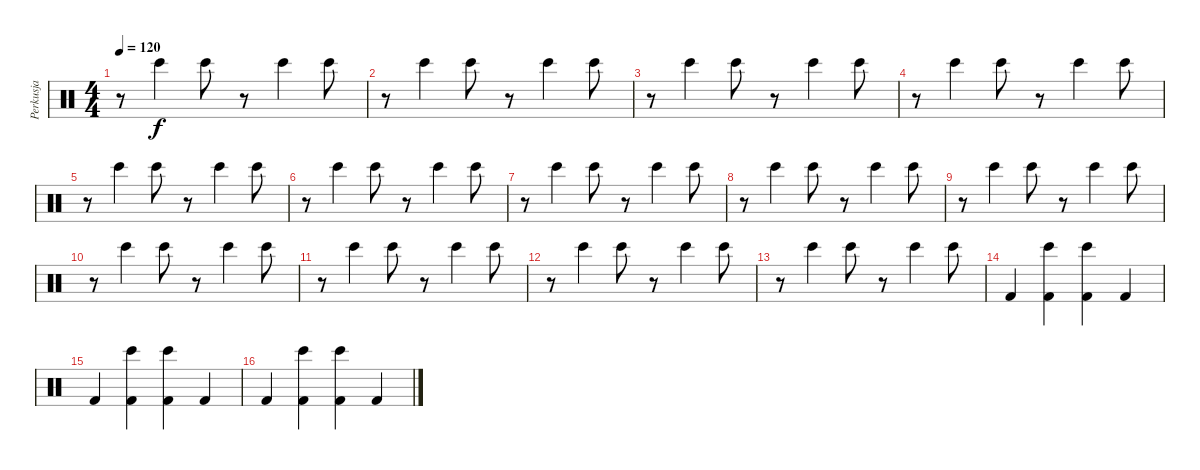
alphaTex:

\track ("Perkusja" "Perkusja") {instrument percussion}
\staff {score}
\articulation defaults
\ts (4 4)
\tempo 120
\clef neutral
\ks c
r.8{dy f} "Bongo High (hit)".4 "Bongo High (hit)".8 r.8 "Bongo High (hit)".4 "Bongo High (hit)".8 |
r.8 "Bongo High (hit)".4 "Bongo High (hit)".8 r.8 "Bongo High (hit)".4 "Bongo High (hit)".8 |
r.8 "Bongo High (hit)".4 "Bongo High (hit)".8 r.8 "Bongo High (hit)".4 "Bongo High (hit)".8 |
r.8 "Bongo High (hit)".4 "Bongo High (hit)".8 r.8 "Bongo High (hit)".4 "Bongo High (hit)".8 |
r.8 "Bongo High (hit)".4 "Bongo High (hit)".8 r.8 "Bongo High (hit)".4 "Bongo High (hit)".8 |
r.8 "Bongo High (hit)".4 "Bongo High (hit)".8 r.8 "Bongo High (hit)".4 "Bongo High (hit)".8 |
r.8 "Bongo High (hit)".4 "Bongo High (hit)".8 r.8 "Bongo High (hit)".4 "Bongo High (hit)".8 |
r.8 "Bongo High (hit)".4 "Bongo High (hit)".8 r.8 "Bongo High (hit)".4 "Bongo High (hit)".8 |
r.8 "Bongo High (hit)".4 "Bongo High (hit)".8 r.8 "Bongo High (hit)".4 "Bongo High (hit)".8 |
r.8 "Bongo High (hit)".4 "Bongo High (hit)".8 r.8 "Bongo High (hit)".4 "Bongo High (hit)".8 |
r.8 "Bongo High (hit)".4 "Bongo High (hit)".8 r.8 "Bongo High (hit)".4 "Bongo High (hit)".8 |
r.8 "Bongo High (hit)".4 "Bongo High (hit)".8 r.8 "Bongo High (hit)".4 "Bongo High (hit)".8 |
r.8 "Bongo High (hit)".4 "Bongo High (hit)".8 r.8 "Bongo High (hit)".4 "Bongo High (hit)".8 |
"Kick (hit) 2".4 ("Bongo High (hit)" "Kick (hit) 2").4 ("Bongo High (hit)" "Kick (hit) 2").4 "Kick (hit) 2".4 |
"Kick (hit) 2".4 ("Bongo High (hit)" "Kick (hit) 2").4 ("Bongo High (hit)" "Kick (hit) 2").4 "Kick (hit) 2".4 |
"Kick (hit) 2".4 ("Bongo High (hit)" "Kick (hit) 2").4 ("Bongo High (hit)" "Kick (hit) 2").4 "Kick (hit) 2".4
